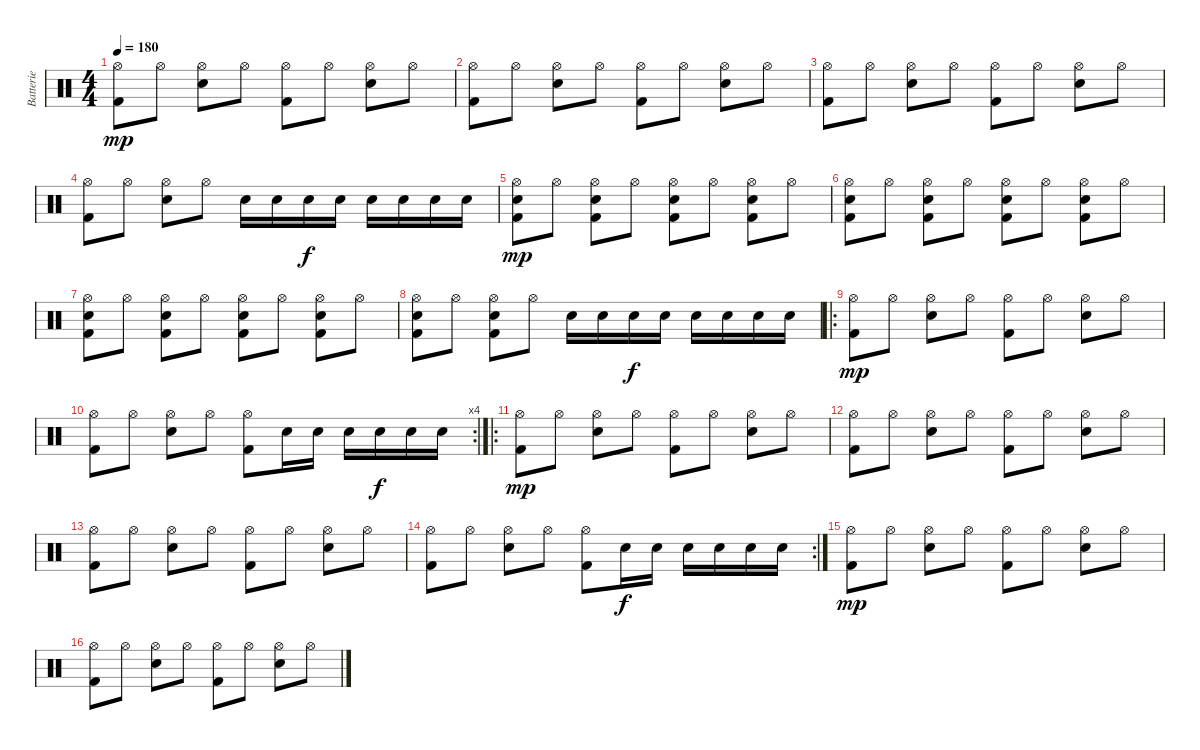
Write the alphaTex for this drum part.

\track ("Batterie" "Batterie") {instrument percussion}
\staff {score}
\articulation defaults
\ts (4 4)
\tempo 180
\clef neutral
\ks c
("Hi-Hat (open)" "Kick (hit) 2").8{dy mp} "Hi-Hat (open)".8 ("Hi-Hat (open)" "Electric Snare (hit)").8 "Hi-Hat (open)".8 ("Hi-Hat (open)" "Kick (hit) 2").8 "Hi-Hat (open)".8 ("Hi-Hat (open)" "Electric Snare (hit)").8 "Hi-Hat (open)".8 |
("Hi-Hat (open)" "Kick (hit) 2").8 "Hi-Hat (open)".8 ("Hi-Hat (open)" "Electric Snare (hit)").8 "Hi-Hat (open)".8 ("Hi-Hat (open)" "Kick (hit) 2").8 "Hi-Hat (open)".8 ("Hi-Hat (open)" "Electric Snare (hit)").8 "Hi-Hat (open)".8 |
("Hi-Hat (open)" "Kick (hit) 2").8 "Hi-Hat (open)".8 ("Hi-Hat (open)" "Electric Snare (hit)").8 "Hi-Hat (open)".8 ("Hi-Hat (open)" "Kick (hit) 2").8 "Hi-Hat (open)".8 ("Hi-Hat (open)" "Electric Snare (hit)").8 "Hi-Hat (open)".8 |
("Hi-Hat (open)" "Kick (hit) 2").8 "Hi-Hat (open)".8 ("Hi-Hat (open)" "Electric Snare (hit)").8 "Hi-Hat (open)".8 "Electric Snare (hit)".16 "Electric Snare (hit)".16 "Electric Snare (hit)".16{dy f} "Electric Snare (hit)".16 "Electric Snare (hit)".16 "Electric Snare (hit)".16 "Electric Snare (hit)".16 "Electric Snare (hit)".16 |
("Hi-Hat (open)" "Kick (hit) 2" "Electric Snare (hit)").8{dy mp} "Hi-Hat (open)".8 ("Hi-Hat (open)" "Kick (hit) 2" "Electric Snare (hit)").8 "Hi-Hat (open)".8 ("Hi-Hat (open)" "Kick (hit) 2" "Electric Snare (hit)").8 "Hi-Hat (open)".8 ("Hi-Hat (open)" "Kick (hit) 2" "Electric Snare (hit)").8 "Hi-Hat (open)".8 |
("Hi-Hat (open)" "Kick (hit) 2" "Electric Snare (hit)").8 "Hi-Hat (open)".8 ("Hi-Hat (open)" "Electric Snare (hit)" "Kick (hit) 2").8 "Hi-Hat (open)".8 ("Hi-Hat (open)" "Kick (hit) 2" "Electric Snare (hit)").8 "Hi-Hat (open)".8 ("Hi-Hat (open)" "Electric Snare (hit)" "Kick (hit) 2").8 "Hi-Hat (open)".8 |
("Hi-Hat (open)" "Kick (hit) 2" "Electric Snare (hit)").8 "Hi-Hat (open)".8 ("Hi-Hat (open)" "Electric Snare (hit)" "Kick (hit) 2").8 "Hi-Hat (open)".8 ("Hi-Hat (open)" "Kick (hit) 2" "Electric Snare (hit)").8 "Hi-Hat (open)".8 ("Hi-Hat (open)" "Electric Snare (hit)" "Kick (hit) 2").8 "Hi-Hat (open)".8 |
("Hi-Hat (open)" "Kick (hit) 2" "Electric Snare (hit)").8 "Hi-Hat (open)".8 ("Hi-Hat (open)" "Electric Snare (hit)" "Kick (hit) 2").8 "Hi-Hat (open)".8 "Electric Snare (hit)".16 "Electric Snare (hit)".16 "Electric Snare (hit)".16{dy f} "Electric Snare (hit)".16 "Electric Snare (hit)".16 "Electric Snare (hit)".16 "Electric Snare (hit)".16 "Electric Snare (hit)".16 |
\ro
("Hi-Hat (open)" "Kick (hit) 2").8{dy mp} "Hi-Hat (open)".8 ("Hi-Hat (open)" "Electric Snare (hit)").8 "Hi-Hat (open)".8 ("Hi-Hat (open)" "Kick (hit) 2").8 "Hi-Hat (open)".8 ("Hi-Hat (open)" "Electric Snare (hit)").8 "Hi-Hat (open)".8 |
\rc 4
("Hi-Hat (open)" "Kick (hit) 2").8 "Hi-Hat (open)".8 ("Hi-Hat (open)" "Electric Snare (hit)").8 "Hi-Hat (open)".8 ("Hi-Hat (open)" "Kick (hit) 2").8 "Electric Snare (hit)".16 "Electric Snare (hit)".16 "Electric Snare (hit)".16 "Electric Snare (hit)".16{dy f} "Electric Snare (hit)".16 "Electric Snare (hit)".16 |
\ro
("Hi-Hat (open)" "Kick (hit) 2").8{dy mp} "Hi-Hat (open)".8 ("Hi-Hat (open)" "Electric Snare (hit)").8 "Hi-Hat (open)".8 ("Hi-Hat (open)" "Kick (hit) 2").8 "Hi-Hat (open)".8 ("Hi-Hat (open)" "Electric Snare (hit)").8 "Hi-Hat (open)".8 |
("Hi-Hat (open)" "Kick (hit) 2").8 "Hi-Hat (open)".8 ("Hi-Hat (open)" "Electric Snare (hit)").8 "Hi-Hat (open)".8 ("Hi-Hat (open)" "Kick (hit) 2").8 "Hi-Hat (open)".8 ("Hi-Hat (open)" "Electric Snare (hit)").8 "Hi-Hat (open)".8 |
("Hi-Hat (open)" "Kick (hit) 2").8 "Hi-Hat (open)".8 ("Hi-Hat (open)" "Electric Snare (hit)").8 "Hi-Hat (open)".8 ("Hi-Hat (open)" "Kick (hit) 2").8 "Hi-Hat (open)".8 ("Hi-Hat (open)" "Electric Snare (hit)").8 "Hi-Hat (open)".8 |
\rc 2
("Hi-Hat (open)" "Kick (hit) 2").8 "Hi-Hat (open)".8 ("Hi-Hat (open)" "Electric Snare (hit)").8 "Hi-Hat (open)".8 ("Hi-Hat (open)" "Kick (hit) 2").8 "Electric Snare (hit)".16{dy f} "Electric Snare (hit)".16 "Electric Snare (hit)".16 "Electric Snare (hit)".16 "Electric Snare (hit)".16 "Electric Snare (hit)".16 |
("Hi-Hat (open)" "Kick (hit) 2").8{dy mp} "Hi-Hat (open)".8 ("Hi-Hat (open)" "Electric Snare (hit)").8 "Hi-Hat (open)".8 ("Hi-Hat (open)" "Kick (hit) 2").8 "Hi-Hat (open)".8 ("Hi-Hat (open)" "Electric Snare (hit)").8 "Hi-Hat (open)".8 |
("Hi-Hat (open)" "Kick (hit) 2").8 "Hi-Hat (open)".8 ("Hi-Hat (open)" "Electric Snare (hit)").8 "Hi-Hat (open)".8 ("Hi-Hat (open)" "Kick (hit) 2").8 "Hi-Hat (open)".8 ("Hi-Hat (open)" "Electric Snare (hit)").8 "Hi-Hat (open)".8
